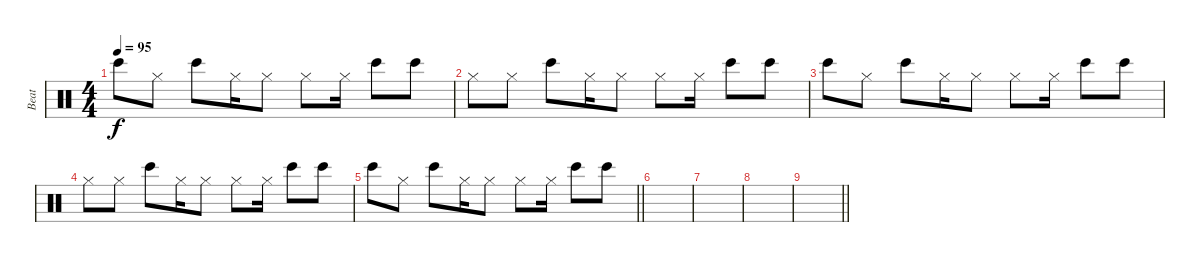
\track ("Beat" "Beat") {instrument percussion}
\staff {score}
\articulation defaults
\ts (4 4)
\tempo 95
\clef neutral
\ks c "Bongo High (hit)".8{dy f} "Hi-Hat (closed)".8 "Bongo High (hit)".8 "Hi-Hat (closed)".16 "Hi-Hat (closed)".8 "Hi-Hat (closed)".8 "Hi-Hat (closed)".16 "Bongo High (hit)".8 "Bongo High (hit)".8
|
"Hi-Hat (closed)".8 "Hi-Hat (closed)".8 "Bongo High (hit)".8 "Hi-Hat (closed)".16 "Hi-Hat (closed)".8 "Hi-Hat (closed)".8 "Hi-Hat (closed)".16 "Bongo High (hit)".8 "Bongo High (hit)".8 |
"Bongo High (hit)".8 "Hi-Hat (closed)".8 "Bongo High (hit)".8 "Hi-Hat (closed)".16 "Hi-Hat (closed)".8 "Hi-Hat (closed)".8 "Hi-Hat (closed)".16 "Bongo High (hit)".8 "Bongo High (hit)".8 |
"Hi-Hat (closed)".8 "Hi-Hat (closed)".8 "Bongo High (hit)".8 "Hi-Hat (closed)".16 "Hi-Hat (closed)".8 "Hi-Hat (closed)".8 "Hi-Hat (closed)".16 "Bongo High (hit)".8 "Bongo High (hit)".8 |
\barLineRight lightlight "Bongo High (hit)".8 "Hi-Hat (closed)".8 "Bongo High (hit)".8 "Hi-Hat (closed)".16 "Hi-Hat (closed)".8 "Hi-Hat (closed)".8 "Hi-Hat (closed)".16 "Bongo High (hit)".8 "Bongo High (hit)".8
|
|
|
|
\barLineRight lightlight
